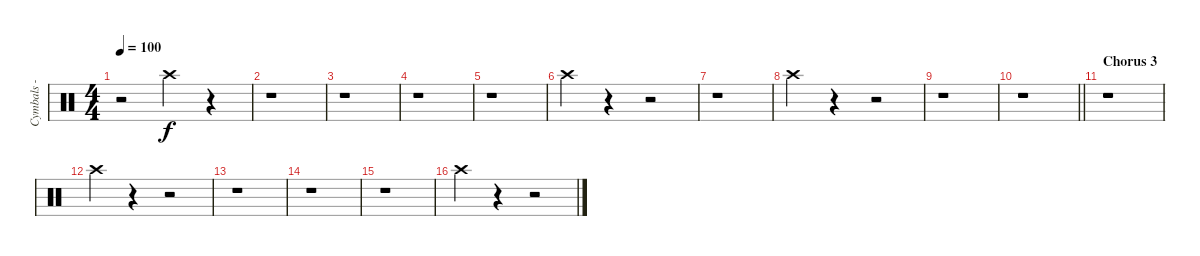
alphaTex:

\track ("Cymbals - crash - right" "Cymbals - ") {instrument percussion}
\staff {score}
\articulation defaults
\ts (4 4)
\tempo 100
\clef neutral
\ks c
r.2{dy f} "Crash high (hit)".4 r.4 |
r.1 |
r.1 |
r.1 |
r.1 |
"Crash high (hit)".4 r.4 r.2 |
r.1 |
"Crash high (hit)".4 r.4 r.2 |
r.1 |
\barLineRight lightlight
r.1 |
\section ("" "Chorus 3")
r.1 |
"Crash high (hit)".4 r.4 r.2 |
r.1 |
r.1 |
r.1 |
"Crash high (hit)".4 r.4 r.2
